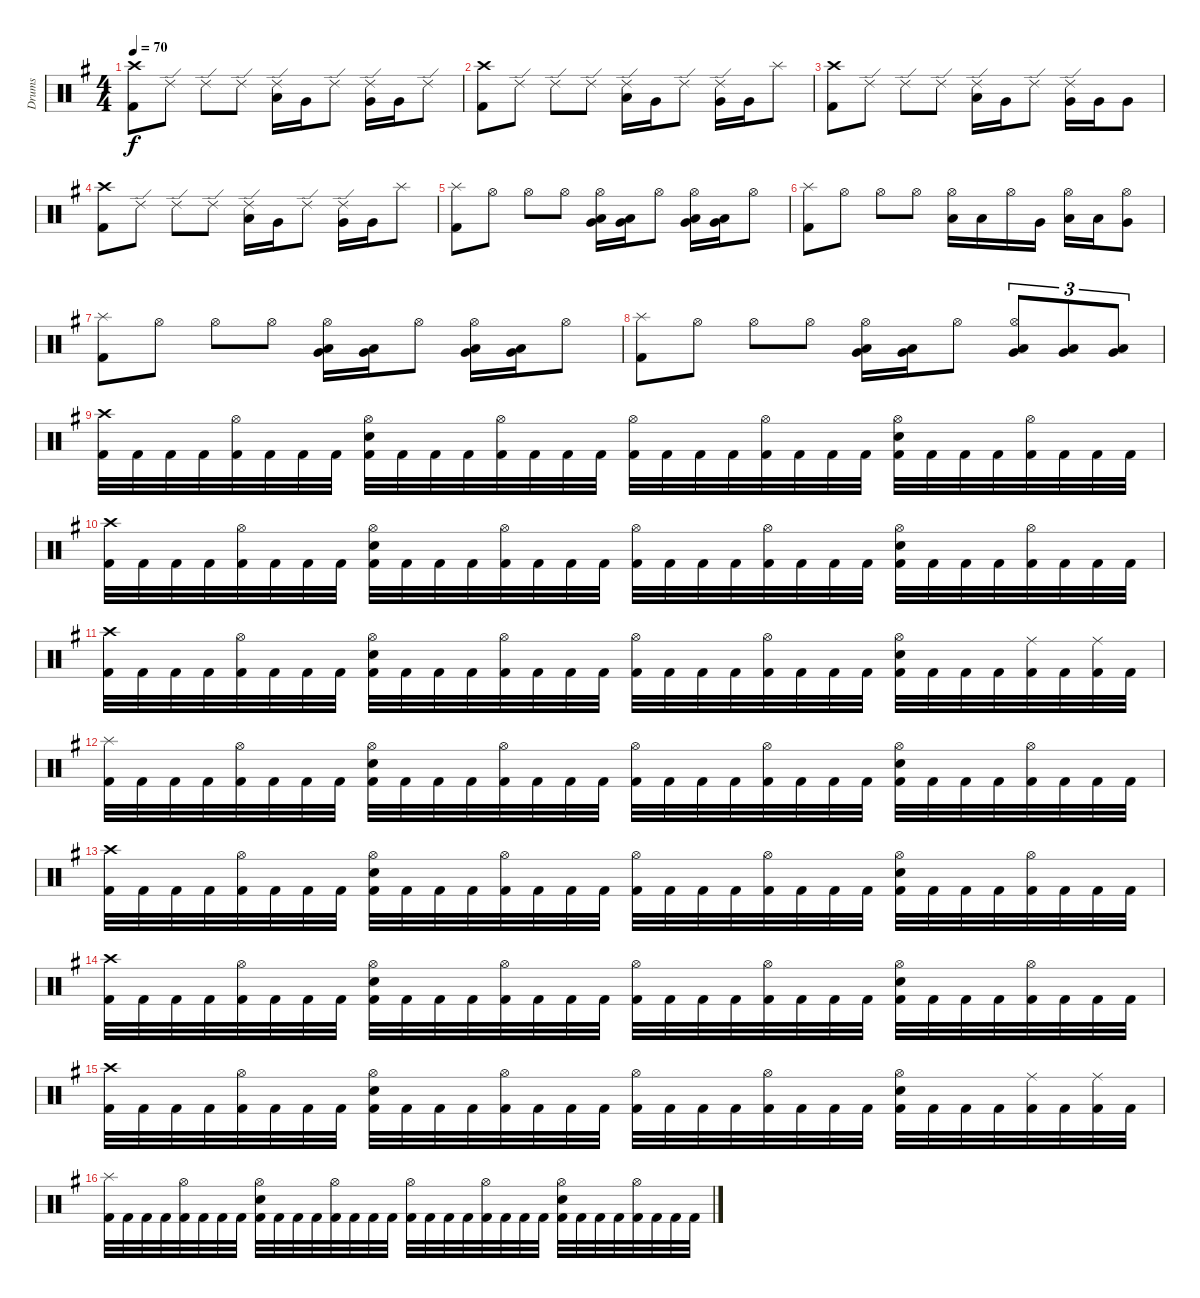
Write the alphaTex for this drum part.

\track ("Drums" "Drums") {instrument percussion}
\staff {score}
\articulation defaults
\ts (4 4)
\tempo 70
\clef neutral
\ks g
("Crash high (hit)" "Kick (hit) 2").8{dy f} "Ride (edge) 2".8 "Ride (edge) 2".8 "Ride (edge) 2".8 ("Ride (edge) 2" "Low Tom (hit)").16 "Very Low Tom (hit)".16 "Ride (edge) 2".8 ("Ride (edge) 2" "Very Low Tom (hit)").16 "Very Low Tom (hit)".16 "Ride (edge) 2".8 |
("Crash high (hit)" "Kick (hit) 2").8 "Ride (edge) 2".8 "Ride (edge) 2".8 "Ride (edge) 2".8 ("Ride (edge) 2" "Low Tom (hit)").16 "Very Low Tom (hit)".16 "Ride (edge) 2".8 ("Ride (edge) 2" "Very Low Tom (hit)").16 "Very Low Tom (hit)".16 "Splash (hit)".8 |
("Crash high (hit)" "Kick (hit) 2").8 "Ride (edge) 2".8 "Ride (edge) 2".8 "Ride (edge) 2".8 ("Ride (edge) 2" "Low Tom (hit)").16 "Very Low Tom (hit)".16 "Ride (edge) 2".8 ("Ride (edge) 2" "Very Low Tom (hit)").16 "Very Low Tom (hit)".16 "Very Low Tom (hit)".8 |
("Crash high (hit)" "Kick (hit) 2").8 "Ride (edge) 2".8 "Ride (edge) 2".8 "Ride (edge) 2".8 ("Ride (edge) 2" "Low Tom (hit)").16 "Very Low Tom (hit)".16 "Ride (edge) 2".8 ("Ride (edge) 2" "Very Low Tom (hit)").16 "Very Low Tom (hit)".16 "Splash (hit)".8 |
("Splash (hit)" "Kick (hit) 2").8 "Hi-Hat (open)".8 "Hi-Hat (open)".8 "Hi-Hat (open)".8 ("Hi-Hat (open)" "Low Floor Tom (hit)" "Very Low Tom (hit)").16 ("Low Floor Tom (hit)" "Very Low Tom (hit)").16 "Hi-Hat (open)".8 ("Hi-Hat (open)" "Low Floor Tom (hit)" "Very Low Tom (hit)").16 ("Low Floor Tom (hit)" "Very Low Tom (hit)").16 "Hi-Hat (open)".8 |
("Splash (hit)" "Kick (hit) 2").8 "Hi-Hat (open)".8 "Hi-Hat (open)".8 "Hi-Hat (open)".8 ("Hi-Hat (open)" "Low Tom (hit)").16 "Low Tom (hit)".16 "Hi-Hat (open)".16 "Very Low Tom (hit)".16 ("Hi-Hat (open)" "Low Tom (hit)").16 "Low Tom (hit)".16 ("Hi-Hat (open)" "Very Low Tom (hit)").8 |
("Splash (hit)" "Kick (hit) 2").8 "Hi-Hat (open)".8 "Hi-Hat (open)".8 "Hi-Hat (open)".8 ("Hi-Hat (open)" "Low Floor Tom (hit)" "Very Low Tom (hit)").16 ("Low Floor Tom (hit)" "Very Low Tom (hit)").16 "Hi-Hat (open)".8 ("Hi-Hat (open)" "Low Floor Tom (hit)" "Very Low Tom (hit)").16 ("Low Floor Tom (hit)" "Very Low Tom (hit)").16 "Hi-Hat (open)".8 |
("Splash (hit)" "Kick (hit) 2").8 "Hi-Hat (open)".8 "Hi-Hat (open)".8 "Hi-Hat (open)".8 ("Hi-Hat (open)" "Low Floor Tom (hit)" "Very Low Tom (hit)").16 ("Low Floor Tom (hit)" "Very Low Tom (hit)").16 "Hi-Hat (open)".8 ("Hi-Hat (open)" "Low Floor Tom (hit)" "Very Low Tom (hit)").8{tu (3 2)} ("Low Floor Tom (hit)" "Very Low Tom (hit)").8{tu (3 2)} ("Low Floor Tom (hit)" "Very Low Tom (hit)").8{tu (3 2)} |
("Crash high (hit)" "Kick (hit) 2").32 "Kick (hit) 2".32 "Kick (hit) 2".32 "Kick (hit) 2".32 ("Hi-Hat (open)" "Kick (hit) 2").32 "Kick (hit) 2".32 "Kick (hit) 2".32 "Kick (hit) 2".32 ("Hi-Hat (open)" "Electric Snare (hit)" "Kick (hit) 2").32 "Kick (hit) 2".32 "Kick (hit) 2".32 "Kick (hit) 2".32 ("Hi-Hat (open)" "Kick (hit) 2").32 "Kick (hit) 2".32 "Kick (hit) 2".32 "Kick (hit) 2".32 ("Hi-Hat (open)" "Kick (hit) 2").32 "Kick (hit) 2".32 "Kick (hit) 2".32 "Kick (hit) 2".32 ("Hi-Hat (open)" "Kick (hit) 2").32 "Kick (hit) 2".32 "Kick (hit) 2".32 "Kick (hit) 2".32 ("Hi-Hat (open)" "Electric Snare (hit)" "Kick (hit) 2").32 "Kick (hit) 2".32 "Kick (hit) 2".32 "Kick (hit) 2".32 ("Hi-Hat (open)" "Kick (hit) 2").32 "Kick (hit) 2".32 "Kick (hit) 2".32 "Kick (hit) 2".32 |
("Crash high (hit)" "Kick (hit) 2").32 "Kick (hit) 2".32 "Kick (hit) 2".32 "Kick (hit) 2".32 ("Hi-Hat (open)" "Kick (hit) 2").32 "Kick (hit) 2".32 "Kick (hit) 2".32 "Kick (hit) 2".32 ("Hi-Hat (open)" "Electric Snare (hit)" "Kick (hit) 2").32 "Kick (hit) 2".32 "Kick (hit) 2".32 "Kick (hit) 2".32 ("Hi-Hat (open)" "Kick (hit) 2").32 "Kick (hit) 2".32 "Kick (hit) 2".32 "Kick (hit) 2".32 ("Hi-Hat (open)" "Kick (hit) 2").32 "Kick (hit) 2".32 "Kick (hit) 2".32 "Kick (hit) 2".32 ("Hi-Hat (open)" "Kick (hit) 2").32 "Kick (hit) 2".32 "Kick (hit) 2".32 "Kick (hit) 2".32 ("Hi-Hat (open)" "Electric Snare (hit)" "Kick (hit) 2").32 "Kick (hit) 2".32 "Kick (hit) 2".32 "Kick (hit) 2".32 ("Hi-Hat (open)" "Kick (hit) 2").32 "Kick (hit) 2".32 "Kick (hit) 2".32 "Kick (hit) 2".32 |
("Crash high (hit)" "Kick (hit) 2").32 "Kick (hit) 2".32 "Kick (hit) 2".32 "Kick (hit) 2".32 ("Hi-Hat (open)" "Kick (hit) 2").32 "Kick (hit) 2".32 "Kick (hit) 2".32 "Kick (hit) 2".32 ("Hi-Hat (open)" "Electric Snare (hit)" "Kick (hit) 2").32 "Kick (hit) 2".32 "Kick (hit) 2".32 "Kick (hit) 2".32 ("Hi-Hat (open)" "Kick (hit) 2").32 "Kick (hit) 2".32 "Kick (hit) 2".32 "Kick (hit) 2".32 ("Hi-Hat (open)" "Kick (hit) 2").32 "Kick (hit) 2".32 "Kick (hit) 2".32 "Kick (hit) 2".32 ("Hi-Hat (open)" "Kick (hit) 2").32 "Kick (hit) 2".32 "Kick (hit) 2".32 "Kick (hit) 2".32 ("Hi-Hat (open)" "Electric Snare (hit)" "Kick (hit) 2").32 "Kick (hit) 2".32 "Kick (hit) 2".32 "Kick (hit) 2".32 ("Ride (middle)" "Kick (hit) 2").32 "Kick (hit) 2".32 ("Ride (middle)" "Kick (hit) 2").32 "Kick (hit) 2".32 |
("Splash (hit)" "Kick (hit) 2").32 "Kick (hit) 2".32 "Kick (hit) 2".32 "Kick (hit) 2".32 ("Hi-Hat (open)" "Kick (hit) 2").32 "Kick (hit) 2".32 "Kick (hit) 2".32 "Kick (hit) 2".32 ("Hi-Hat (open)" "Electric Snare (hit)" "Kick (hit) 2").32 "Kick (hit) 2".32 "Kick (hit) 2".32 "Kick (hit) 2".32 ("Hi-Hat (open)" "Kick (hit) 2").32 "Kick (hit) 2".32 "Kick (hit) 2".32 "Kick (hit) 2".32 ("Hi-Hat (open)" "Kick (hit) 2").32 "Kick (hit) 2".32 "Kick (hit) 2".32 "Kick (hit) 2".32 ("Hi-Hat (open)" "Kick (hit) 2").32 "Kick (hit) 2".32 "Kick (hit) 2".32 "Kick (hit) 2".32 ("Hi-Hat (open)" "Electric Snare (hit)" "Kick (hit) 2").32 "Kick (hit) 2".32 "Kick (hit) 2".32 "Kick (hit) 2".32 ("Hi-Hat (open)" "Kick (hit) 2").32 "Kick (hit) 2".32 "Kick (hit) 2".32 "Kick (hit) 2".32 |
("Crash high (hit)" "Kick (hit) 2").32 "Kick (hit) 2".32 "Kick (hit) 2".32 "Kick (hit) 2".32 ("Hi-Hat (open)" "Kick (hit) 2").32 "Kick (hit) 2".32 "Kick (hit) 2".32 "Kick (hit) 2".32 ("Hi-Hat (open)" "Electric Snare (hit)" "Kick (hit) 2").32 "Kick (hit) 2".32 "Kick (hit) 2".32 "Kick (hit) 2".32 ("Hi-Hat (open)" "Kick (hit) 2").32 "Kick (hit) 2".32 "Kick (hit) 2".32 "Kick (hit) 2".32 ("Hi-Hat (open)" "Kick (hit) 2").32 "Kick (hit) 2".32 "Kick (hit) 2".32 "Kick (hit) 2".32 ("Hi-Hat (open)" "Kick (hit) 2").32 "Kick (hit) 2".32 "Kick (hit) 2".32 "Kick (hit) 2".32 ("Hi-Hat (open)" "Electric Snare (hit)" "Kick (hit) 2").32 "Kick (hit) 2".32 "Kick (hit) 2".32 "Kick (hit) 2".32 ("Hi-Hat (open)" "Kick (hit) 2").32 "Kick (hit) 2".32 "Kick (hit) 2".32 "Kick (hit) 2".32 |
("Crash high (hit)" "Kick (hit) 2").32 "Kick (hit) 2".32 "Kick (hit) 2".32 "Kick (hit) 2".32 ("Hi-Hat (open)" "Kick (hit) 2").32 "Kick (hit) 2".32 "Kick (hit) 2".32 "Kick (hit) 2".32 ("Hi-Hat (open)" "Electric Snare (hit)" "Kick (hit) 2").32 "Kick (hit) 2".32 "Kick (hit) 2".32 "Kick (hit) 2".32 ("Hi-Hat (open)" "Kick (hit) 2").32 "Kick (hit) 2".32 "Kick (hit) 2".32 "Kick (hit) 2".32 ("Hi-Hat (open)" "Kick (hit) 2").32 "Kick (hit) 2".32 "Kick (hit) 2".32 "Kick (hit) 2".32 ("Hi-Hat (open)" "Kick (hit) 2").32 "Kick (hit) 2".32 "Kick (hit) 2".32 "Kick (hit) 2".32 ("Hi-Hat (open)" "Electric Snare (hit)" "Kick (hit) 2").32 "Kick (hit) 2".32 "Kick (hit) 2".32 "Kick (hit) 2".32 ("Hi-Hat (open)" "Kick (hit) 2").32 "Kick (hit) 2".32 "Kick (hit) 2".32 "Kick (hit) 2".32 |
("Crash high (hit)" "Kick (hit) 2").32 "Kick (hit) 2".32 "Kick (hit) 2".32 "Kick (hit) 2".32 ("Hi-Hat (open)" "Kick (hit) 2").32 "Kick (hit) 2".32 "Kick (hit) 2".32 "Kick (hit) 2".32 ("Hi-Hat (open)" "Electric Snare (hit)" "Kick (hit) 2").32 "Kick (hit) 2".32 "Kick (hit) 2".32 "Kick (hit) 2".32 ("Hi-Hat (open)" "Kick (hit) 2").32 "Kick (hit) 2".32 "Kick (hit) 2".32 "Kick (hit) 2".32 ("Hi-Hat (open)" "Kick (hit) 2").32 "Kick (hit) 2".32 "Kick (hit) 2".32 "Kick (hit) 2".32 ("Hi-Hat (open)" "Kick (hit) 2").32 "Kick (hit) 2".32 "Kick (hit) 2".32 "Kick (hit) 2".32 ("Hi-Hat (open)" "Electric Snare (hit)" "Kick (hit) 2").32 "Kick (hit) 2".32 "Kick (hit) 2".32 "Kick (hit) 2".32 ("Ride (middle)" "Kick (hit) 2").32 "Kick (hit) 2".32 ("Ride (middle)" "Kick (hit) 2").32 "Kick (hit) 2".32 |
("Splash (hit)" "Kick (hit) 2").32 "Kick (hit) 2".32 "Kick (hit) 2".32 "Kick (hit) 2".32 ("Hi-Hat (open)" "Kick (hit) 2").32 "Kick (hit) 2".32 "Kick (hit) 2".32 "Kick (hit) 2".32 ("Hi-Hat (open)" "Electric Snare (hit)" "Kick (hit) 2").32 "Kick (hit) 2".32 "Kick (hit) 2".32 "Kick (hit) 2".32 ("Hi-Hat (open)" "Kick (hit) 2").32 "Kick (hit) 2".32 "Kick (hit) 2".32 "Kick (hit) 2".32 ("Hi-Hat (open)" "Kick (hit) 2").32 "Kick (hit) 2".32 "Kick (hit) 2".32 "Kick (hit) 2".32 ("Hi-Hat (open)" "Kick (hit) 2").32 "Kick (hit) 2".32 "Kick (hit) 2".32 "Kick (hit) 2".32 ("Hi-Hat (open)" "Electric Snare (hit)" "Kick (hit) 2").32 "Kick (hit) 2".32 "Kick (hit) 2".32 "Kick (hit) 2".32 ("Hi-Hat (open)" "Kick (hit) 2").32 "Kick (hit) 2".32 "Kick (hit) 2".32 "Kick (hit) 2".32
